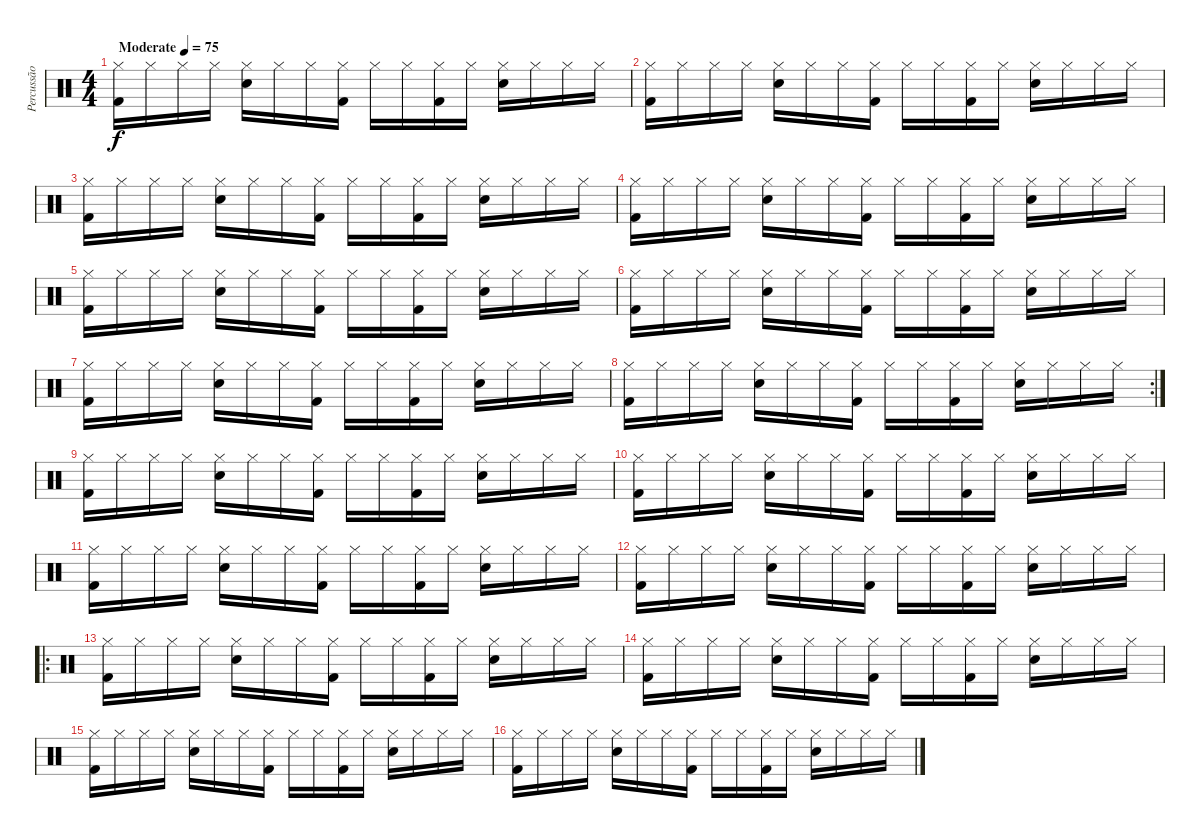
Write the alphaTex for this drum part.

\track ("Percussão" "Percussão") {instrument percussion}
\staff {score}
\articulation defaults
\ts (4 4)
\tempo (75 "Moderate")
\clef neutral
\ks c
("Hi-Hat (closed)" "Kick (hit) 2").16{dy f} "Hi-Hat (closed)".16 "Hi-Hat (closed)".16 "Hi-Hat (closed)".16 ("Hi-Hat (closed)" "Electric Snare (hit)").16 "Hi-Hat (closed)".16 "Hi-Hat (closed)".16 ("Hi-Hat (closed)" "Kick (hit) 2").16 "Hi-Hat (closed)".16 "Hi-Hat (closed)".16 ("Hi-Hat (closed)" "Kick (hit) 2").16 "Hi-Hat (closed)".16 ("Hi-Hat (closed)" "Electric Snare (hit)").16 "Hi-Hat (closed)".16 "Hi-Hat (closed)".16 "Hi-Hat (closed)".16 |
("Hi-Hat (closed)" "Kick (hit) 2").16 "Hi-Hat (closed)".16 "Hi-Hat (closed)".16 "Hi-Hat (closed)".16 ("Hi-Hat (closed)" "Electric Snare (hit)").16 "Hi-Hat (closed)".16 "Hi-Hat (closed)".16 ("Hi-Hat (closed)" "Kick (hit) 2").16 "Hi-Hat (closed)".16 "Hi-Hat (closed)".16 ("Hi-Hat (closed)" "Kick (hit) 2").16 "Hi-Hat (closed)".16 ("Hi-Hat (closed)" "Electric Snare (hit)").16 "Hi-Hat (closed)".16 "Hi-Hat (closed)".16 "Hi-Hat (closed)".16 |
("Hi-Hat (closed)" "Kick (hit) 2").16 "Hi-Hat (closed)".16 "Hi-Hat (closed)".16 "Hi-Hat (closed)".16 ("Hi-Hat (closed)" "Electric Snare (hit)").16 "Hi-Hat (closed)".16 "Hi-Hat (closed)".16 ("Hi-Hat (closed)" "Kick (hit) 2").16 "Hi-Hat (closed)".16 "Hi-Hat (closed)".16 ("Hi-Hat (closed)" "Kick (hit) 2").16 "Hi-Hat (closed)".16 ("Hi-Hat (closed)" "Electric Snare (hit)").16 "Hi-Hat (closed)".16 "Hi-Hat (closed)".16 "Hi-Hat (closed)".16 |
("Hi-Hat (closed)" "Kick (hit) 2").16 "Hi-Hat (closed)".16 "Hi-Hat (closed)".16 "Hi-Hat (closed)".16 ("Hi-Hat (closed)" "Electric Snare (hit)").16 "Hi-Hat (closed)".16 "Hi-Hat (closed)".16 ("Hi-Hat (closed)" "Kick (hit) 2").16 "Hi-Hat (closed)".16 "Hi-Hat (closed)".16 ("Hi-Hat (closed)" "Kick (hit) 2").16 "Hi-Hat (closed)".16 ("Hi-Hat (closed)" "Electric Snare (hit)").16 "Hi-Hat (closed)".16 "Hi-Hat (closed)".16 "Hi-Hat (closed)".16 |
("Hi-Hat (closed)" "Kick (hit) 2").16 "Hi-Hat (closed)".16 "Hi-Hat (closed)".16 "Hi-Hat (closed)".16 ("Hi-Hat (closed)" "Electric Snare (hit)").16 "Hi-Hat (closed)".16 "Hi-Hat (closed)".16 ("Hi-Hat (closed)" "Kick (hit) 2").16 "Hi-Hat (closed)".16 "Hi-Hat (closed)".16 ("Hi-Hat (closed)" "Kick (hit) 2").16 "Hi-Hat (closed)".16 ("Hi-Hat (closed)" "Electric Snare (hit)").16 "Hi-Hat (closed)".16 "Hi-Hat (closed)".16 "Hi-Hat (closed)".16 |
("Hi-Hat (closed)" "Kick (hit) 2").16 "Hi-Hat (closed)".16 "Hi-Hat (closed)".16 "Hi-Hat (closed)".16 ("Hi-Hat (closed)" "Electric Snare (hit)").16 "Hi-Hat (closed)".16 "Hi-Hat (closed)".16 ("Hi-Hat (closed)" "Kick (hit) 2").16 "Hi-Hat (closed)".16 "Hi-Hat (closed)".16 ("Hi-Hat (closed)" "Kick (hit) 2").16 "Hi-Hat (closed)".16 ("Hi-Hat (closed)" "Electric Snare (hit)").16 "Hi-Hat (closed)".16 "Hi-Hat (closed)".16 "Hi-Hat (closed)".16 |
("Hi-Hat (closed)" "Kick (hit) 2").16 "Hi-Hat (closed)".16 "Hi-Hat (closed)".16 "Hi-Hat (closed)".16 ("Hi-Hat (closed)" "Electric Snare (hit)").16 "Hi-Hat (closed)".16 "Hi-Hat (closed)".16 ("Hi-Hat (closed)" "Kick (hit) 2").16 "Hi-Hat (closed)".16 "Hi-Hat (closed)".16 ("Hi-Hat (closed)" "Kick (hit) 2").16 "Hi-Hat (closed)".16 ("Hi-Hat (closed)" "Electric Snare (hit)").16 "Hi-Hat (closed)".16 "Hi-Hat (closed)".16 "Hi-Hat (closed)".16 |
\rc 2
("Hi-Hat (closed)" "Kick (hit) 2").16 "Hi-Hat (closed)".16 "Hi-Hat (closed)".16 "Hi-Hat (closed)".16 ("Hi-Hat (closed)" "Electric Snare (hit)").16 "Hi-Hat (closed)".16 "Hi-Hat (closed)".16 ("Hi-Hat (closed)" "Kick (hit) 2").16 "Hi-Hat (closed)".16 "Hi-Hat (closed)".16 ("Hi-Hat (closed)" "Kick (hit) 2").16 "Hi-Hat (closed)".16 ("Hi-Hat (closed)" "Electric Snare (hit)").16 "Hi-Hat (closed)".16 "Hi-Hat (closed)".16 "Hi-Hat (closed)".16 |
("Hi-Hat (closed)" "Kick (hit) 2").16 "Hi-Hat (closed)".16 "Hi-Hat (closed)".16 "Hi-Hat (closed)".16 ("Hi-Hat (closed)" "Electric Snare (hit)").16 "Hi-Hat (closed)".16 "Hi-Hat (closed)".16 ("Hi-Hat (closed)" "Kick (hit) 2").16 "Hi-Hat (closed)".16 "Hi-Hat (closed)".16 ("Hi-Hat (closed)" "Kick (hit) 2").16 "Hi-Hat (closed)".16 ("Hi-Hat (closed)" "Electric Snare (hit)").16 "Hi-Hat (closed)".16 "Hi-Hat (closed)".16 "Hi-Hat (closed)".16 |
("Hi-Hat (closed)" "Kick (hit) 2").16 "Hi-Hat (closed)".16 "Hi-Hat (closed)".16 "Hi-Hat (closed)".16 ("Hi-Hat (closed)" "Electric Snare (hit)").16 "Hi-Hat (closed)".16 "Hi-Hat (closed)".16 ("Hi-Hat (closed)" "Kick (hit) 2").16 "Hi-Hat (closed)".16 "Hi-Hat (closed)".16 ("Hi-Hat (closed)" "Kick (hit) 2").16 "Hi-Hat (closed)".16 ("Hi-Hat (closed)" "Electric Snare (hit)").16 "Hi-Hat (closed)".16 "Hi-Hat (closed)".16 "Hi-Hat (closed)".16 |
("Hi-Hat (closed)" "Kick (hit) 2").16 "Hi-Hat (closed)".16 "Hi-Hat (closed)".16 "Hi-Hat (closed)".16 ("Hi-Hat (closed)" "Electric Snare (hit)").16 "Hi-Hat (closed)".16 "Hi-Hat (closed)".16 ("Hi-Hat (closed)" "Kick (hit) 2").16 "Hi-Hat (closed)".16 "Hi-Hat (closed)".16 ("Hi-Hat (closed)" "Kick (hit) 2").16 "Hi-Hat (closed)".16 ("Hi-Hat (closed)" "Electric Snare (hit)").16 "Hi-Hat (closed)".16 "Hi-Hat (closed)".16 "Hi-Hat (closed)".16 |
("Hi-Hat (closed)" "Kick (hit) 2").16 "Hi-Hat (closed)".16 "Hi-Hat (closed)".16 "Hi-Hat (closed)".16 ("Hi-Hat (closed)" "Electric Snare (hit)").16 "Hi-Hat (closed)".16 "Hi-Hat (closed)".16 ("Hi-Hat (closed)" "Kick (hit) 2").16 "Hi-Hat (closed)".16 "Hi-Hat (closed)".16 ("Hi-Hat (closed)" "Kick (hit) 2").16 "Hi-Hat (closed)".16 ("Hi-Hat (closed)" "Electric Snare (hit)").16 "Hi-Hat (closed)".16 "Hi-Hat (closed)".16 "Hi-Hat (closed)".16 |
\ro
("Hi-Hat (closed)" "Kick (hit) 2").16 "Hi-Hat (closed)".16 "Hi-Hat (closed)".16 "Hi-Hat (closed)".16 ("Hi-Hat (closed)" "Electric Snare (hit)").16 "Hi-Hat (closed)".16 "Hi-Hat (closed)".16 ("Hi-Hat (closed)" "Kick (hit) 2").16 "Hi-Hat (closed)".16 "Hi-Hat (closed)".16 ("Hi-Hat (closed)" "Kick (hit) 2").16 "Hi-Hat (closed)".16 ("Hi-Hat (closed)" "Electric Snare (hit)").16 "Hi-Hat (closed)".16 "Hi-Hat (closed)".16 "Hi-Hat (closed)".16 |
("Hi-Hat (closed)" "Kick (hit) 2").16 "Hi-Hat (closed)".16 "Hi-Hat (closed)".16 "Hi-Hat (closed)".16 ("Hi-Hat (closed)" "Electric Snare (hit)").16 "Hi-Hat (closed)".16 "Hi-Hat (closed)".16 ("Hi-Hat (closed)" "Kick (hit) 2").16 "Hi-Hat (closed)".16 "Hi-Hat (closed)".16 ("Hi-Hat (closed)" "Kick (hit) 2").16 "Hi-Hat (closed)".16 ("Hi-Hat (closed)" "Electric Snare (hit)").16 "Hi-Hat (closed)".16 "Hi-Hat (closed)".16 "Hi-Hat (closed)".16 |
("Hi-Hat (closed)" "Kick (hit) 2").16 "Hi-Hat (closed)".16 "Hi-Hat (closed)".16 "Hi-Hat (closed)".16 ("Hi-Hat (closed)" "Electric Snare (hit)").16 "Hi-Hat (closed)".16 "Hi-Hat (closed)".16 ("Hi-Hat (closed)" "Kick (hit) 2").16 "Hi-Hat (closed)".16 "Hi-Hat (closed)".16 ("Hi-Hat (closed)" "Kick (hit) 2").16 "Hi-Hat (closed)".16 ("Hi-Hat (closed)" "Electric Snare (hit)").16 "Hi-Hat (closed)".16 "Hi-Hat (closed)".16 "Hi-Hat (closed)".16 |
("Hi-Hat (closed)" "Kick (hit) 2").16 "Hi-Hat (closed)".16 "Hi-Hat (closed)".16 "Hi-Hat (closed)".16 ("Hi-Hat (closed)" "Electric Snare (hit)").16 "Hi-Hat (closed)".16 "Hi-Hat (closed)".16 ("Hi-Hat (closed)" "Kick (hit) 2").16 "Hi-Hat (closed)".16 "Hi-Hat (closed)".16 ("Hi-Hat (closed)" "Kick (hit) 2").16 "Hi-Hat (closed)".16 ("Hi-Hat (closed)" "Electric Snare (hit)").16 "Hi-Hat (closed)".16 "Hi-Hat (closed)".16 "Hi-Hat (closed)".16
